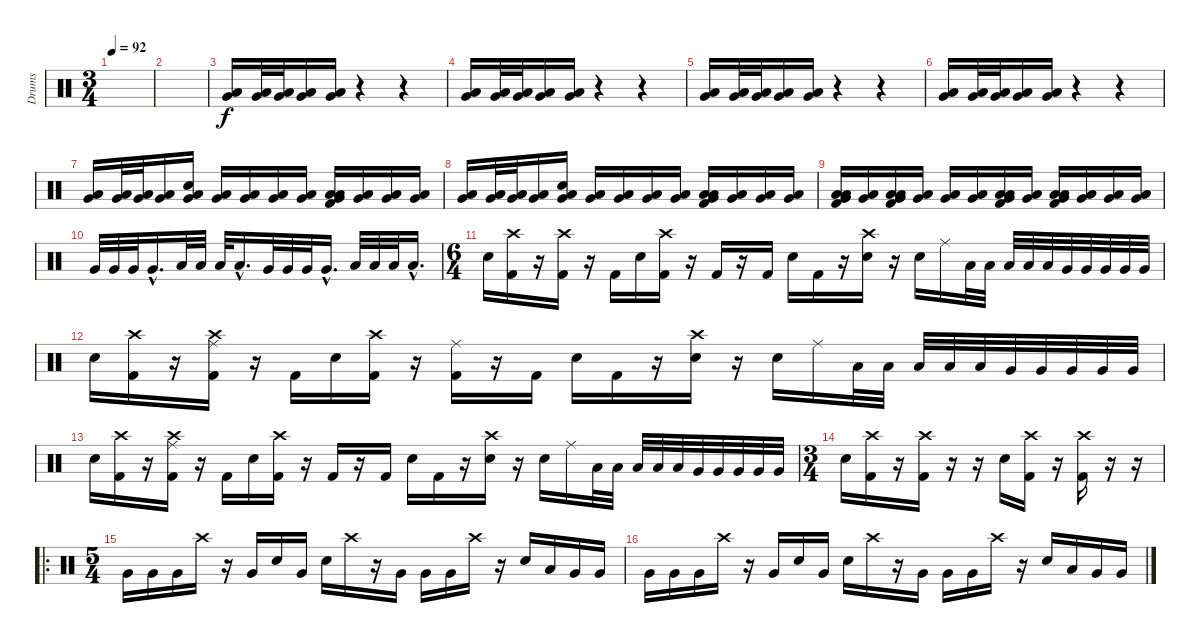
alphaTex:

\track ("Drums               " "Drums     ") {instrument percussion}
\staff {score}
\articulation defaults
\ts (3 4)
\tempo 92
\clef neutral
\ks c
|
|
("Very Low Tom (hit)" "Low Floor Tom (hit)").16 ("Very Low Tom (hit)" "Low Floor Tom (hit)").32 ("Very Low Tom (hit)" "Low Floor Tom (hit)").32 ("Very Low Tom (hit)" "Low Floor Tom (hit)").16 ("Very Low Tom (hit)" "Low Floor Tom (hit)").16 r.4 r.4 |
("Very Low Tom (hit)" "Low Floor Tom (hit)").16 ("Very Low Tom (hit)" "Low Floor Tom (hit)").32 ("Very Low Tom (hit)" "Low Floor Tom (hit)").32 ("Very Low Tom (hit)" "Low Floor Tom (hit)").16 ("Very Low Tom (hit)" "Low Floor Tom (hit)").16 r.4 r.4 |
("Very Low Tom (hit)" "Low Floor Tom (hit)").16 ("Very Low Tom (hit)" "Low Floor Tom (hit)").32 ("Very Low Tom (hit)" "Low Floor Tom (hit)").32 ("Very Low Tom (hit)" "Low Floor Tom (hit)").16 ("Very Low Tom (hit)" "Low Floor Tom (hit)").16 r.4 r.4 |
("Very Low Tom (hit)" "Low Floor Tom (hit)").16 ("Very Low Tom (hit)" "Low Floor Tom (hit)").32 ("Very Low Tom (hit)" "Low Floor Tom (hit)").32 ("Very Low Tom (hit)" "Low Floor Tom (hit)").16 ("Very Low Tom (hit)" "Low Floor Tom (hit)").16 r.4 r.4 |
("Very Low Tom (hit)" "Low Floor Tom (hit)").16 ("Very Low Tom (hit)" "Low Floor Tom (hit)").32 ("Very Low Tom (hit)" "Low Floor Tom (hit)").32 ("Very Low Tom (hit)" "Low Floor Tom (hit)").16 ("Very Low Tom (hit)" "Low Floor Tom (hit)" "Electric Snare (hit)").16 ("Very Low Tom (hit)" "Low Floor Tom (hit)").16 ("Very Low Tom (hit)" "Low Floor Tom (hit)").16 ("Very Low Tom (hit)" "Low Floor Tom (hit)").16 ("Very Low Tom (hit)" "Low Floor Tom (hit)").16 ("Very Low Tom (hit)" "Low Floor Tom (hit)" "Low Floor Tom (hit)" "Kick (hit) 2").16 ("Very Low Tom (hit)" "Low Floor Tom (hit)").16 ("Very Low Tom (hit)" "Low Floor Tom (hit)").16 ("Very Low Tom (hit)" "Low Floor Tom (hit)").16 |
("Very Low Tom (hit)" "Low Floor Tom (hit)").16 ("Very Low Tom (hit)" "Low Floor Tom (hit)").32 ("Very Low Tom (hit)" "Low Floor Tom (hit)").32 ("Very Low Tom (hit)" "Low Floor Tom (hit)").16 ("Very Low Tom (hit)" "Low Floor Tom (hit)" "Electric Snare (hit)").16 ("Very Low Tom (hit)" "Low Floor Tom (hit)").16 ("Very Low Tom (hit)" "Low Floor Tom (hit)").16 ("Very Low Tom (hit)" "Low Floor Tom (hit)").16 ("Very Low Tom (hit)" "Low Floor Tom (hit)").16 ("Very Low Tom (hit)" "Low Floor Tom (hit)" "Low Floor Tom (hit)" "Kick (hit) 2").16 ("Very Low Tom (hit)" "Low Floor Tom (hit)").16 ("Very Low Tom (hit)" "Low Floor Tom (hit)").16 ("Very Low Tom (hit)" "Low Floor Tom (hit)").16 |
("Very Low Tom (hit)" "Low Floor Tom (hit)" "Low Floor Tom (hit)" "Kick (hit) 2").16 ("Very Low Tom (hit)" "Low Floor Tom (hit)").16 ("Very Low Tom (hit)" "Low Floor Tom (hit)" "Low Floor Tom (hit)" "Kick (hit) 2").16 ("Very Low Tom (hit)" "Low Floor Tom (hit)").16 ("Very Low Tom (hit)" "Low Floor Tom (hit)").16 ("Very Low Tom (hit)" "Low Floor Tom (hit)").16 ("Very Low Tom (hit)" "Low Floor Tom (hit)" "Low Floor Tom (hit)" "Kick (hit) 2").16 ("Very Low Tom (hit)" "Low Floor Tom (hit)").16 ("Very Low Tom (hit)" "Low Floor Tom (hit)" "Low Floor Tom (hit)" "Kick (hit) 2").16 ("Very Low Tom (hit)" "Low Floor Tom (hit)").16 ("Very Low Tom (hit)" "Low Floor Tom (hit)").16 ("Very Low Tom (hit)" "Low Floor Tom (hit)").16 |
"Very Low Tom (hit)".32 "Very Low Tom (hit)".32 "Very Low Tom (hit)".32 "Very Low Tom (hit)"{hac}.16{d} "Low Tom (hit)".32 "Low Tom (hit)".32 "Low Tom (hit)".32 "Low Tom (hit)"{hac}.16{d} "Very Low Tom (hit)".32 "Very Low Tom (hit)".32 "Very Low Tom (hit)".32 "Very Low Tom (hit)"{hac}.16{d} "Low Tom (hit)".32 "Low Tom (hit)".32 "Low Tom (hit)".32 "Low Tom (hit)"{hac}.16{d} |
\ts (6 4)
"Electric Snare (hit)".16 ("Crash high (hit)" "Kick (hit) 2").16 r.16 ("Crash high (hit)" "Kick (hit) 2").16 r.16 "Kick (hit) 2".16 "Electric Snare (hit)".16 ("Crash high (hit)" "Kick (hit) 2").16 r.16 "Kick (hit) 2".16 r.16 "Kick (hit) 2".16 "Electric Snare (hit)".16 "Kick (hit) 2".16 r.16 ("Crash high (hit)" "Electric Snare (hit)").16 r.16 "Electric Snare (hit)".16 "Ride (middle)".16 "Low Tom (hit)".32 "Low Tom (hit)".32 "Low Tom (hit)".32 "Low Tom (hit)".32 "Low Tom (hit)".32 "Very Low Tom (hit)".32 "Very Low Tom (hit)".32 "Very Low Tom (hit)".32 "Very Low Tom (hit)".32 "Very Low Tom (hit)".32 |
"Electric Snare (hit)".16 ("Crash high (hit)" "Kick (hit) 2").16 r.16 ("Crash high (hit)" "Ride (middle)" "Kick (hit) 2").16 r.16 "Kick (hit) 2".16 "Electric Snare (hit)".16 ("Crash high (hit)" "Kick (hit) 2").16 r.16 ("Ride (middle)" "Kick (hit) 2").16 r.16 "Kick (hit) 2".16 "Electric Snare (hit)".16 "Kick (hit) 2".16 r.16 ("Crash high (hit)" "Electric Snare (hit)").16 r.16 "Electric Snare (hit)".16 "Ride (middle)".16 "Low Tom (hit)".32 "Low Tom (hit)".32 "Low Tom (hit)".32 "Low Tom (hit)".32 "Low Tom (hit)".32 "Very Low Tom (hit)".32 "Very Low Tom (hit)".32 "Very Low Tom (hit)".32 "Very Low Tom (hit)".32 "Very Low Tom (hit)".32 |
"Electric Snare (hit)".16 ("Crash high (hit)" "Kick (hit) 2").16 r.16 ("Crash high (hit)" "Ride (middle)" "Kick (hit) 2").16 r.16 "Kick (hit) 2".16 "Electric Snare (hit)".16 ("Crash high (hit)" "Kick (hit) 2").16 r.16 "Kick (hit) 2".16 r.16 "Kick (hit) 2".16 "Electric Snare (hit)".16 "Kick (hit) 2".16 r.16 ("Crash high (hit)" "Electric Snare (hit)").16 r.16 "Electric Snare (hit)".16 "Ride (middle)".16 "Low Tom (hit)".32 "Low Tom (hit)".32 "Low Tom (hit)".32 "Low Tom (hit)".32 "Low Tom (hit)".32 "Very Low Tom (hit)".32 "Very Low Tom (hit)".32 "Very Low Tom (hit)".32 "Very Low Tom (hit)".32 "Very Low Tom (hit)".32 |
\ts (3 4)
"Electric Snare (hit)".16 ("Crash high (hit)" "Kick (hit) 2").16 r.16 ("Crash high (hit)" "Kick (hit) 2").16 r.16 r.16 "Electric Snare (hit)".16 ("Crash high (hit)" "Kick (hit) 2").16 r.16 ("Crash high (hit)" "Kick (hit) 2").16 r.16 r.16 |
\ro
\ts (5 4)
"Very Low Tom (hit)".16 "Very Low Tom (hit)".16 "Very Low Tom (hit)".16 "Crash high (hit)".16 r.16 "Very Low Tom (hit)".16 "Electric Snare (hit)".16 "Very Low Tom (hit)".16 "Electric Snare (hit)".16 "Crash high (hit)".16 r.16 "Very Low Tom (hit)".16 "Very Low Tom (hit)".16 "Very Low Tom (hit)".16 "Crash high (hit)".16 r.16 "Electric Snare (hit)".16 "Low Floor Tom (hit)".16 "Very Low Tom (hit)".16 "Very Low Tom (hit)".16 |
"Very Low Tom (hit)".16 "Very Low Tom (hit)".16 "Very Low Tom (hit)".16 "Crash high (hit)".16 r.16 "Very Low Tom (hit)".16 "Electric Snare (hit)".16 "Very Low Tom (hit)".16 "Electric Snare (hit)".16 "Crash high (hit)".16 r.16 "Very Low Tom (hit)".16 "Very Low Tom (hit)".16 "Very Low Tom (hit)".16 "Crash high (hit)".16 r.16 "Electric Snare (hit)".16 "Low Floor Tom (hit)".16 "Very Low Tom (hit)".16 "Very Low Tom (hit)".16
